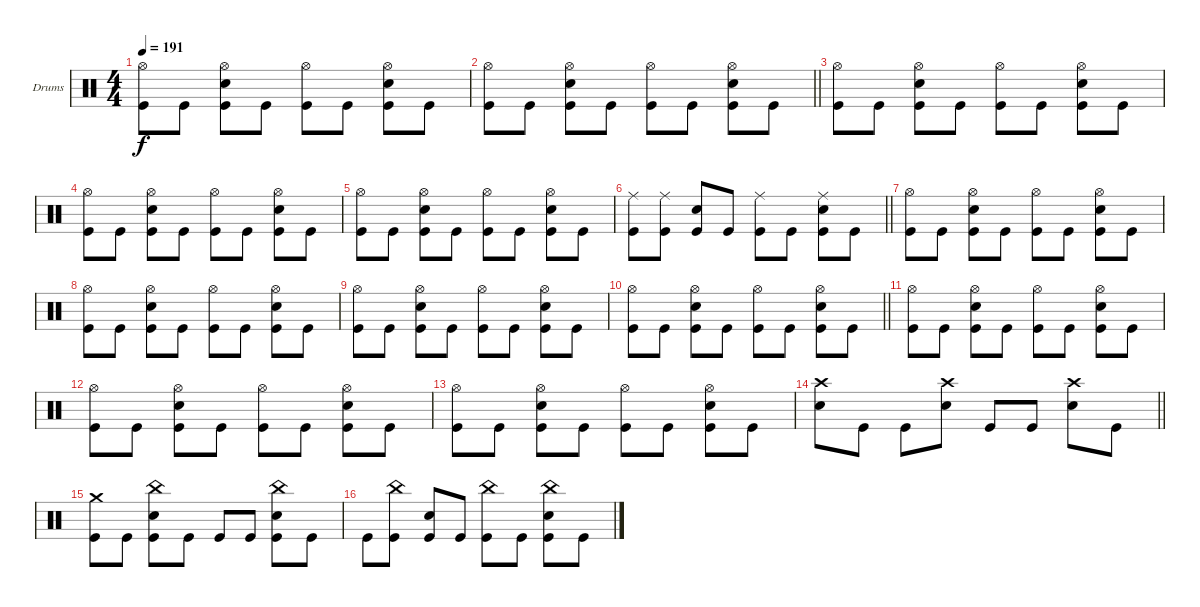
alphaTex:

\bracketExtendMode groupsimilarinstruments
\firstSystemTrackNameOrientation horizontal
\otherSystemsTrackNameOrientation horizontal
\track ("Drumkit" "Drums") {instrument percussion}
\staff {score}
\articulation defaults
\ts (4 4)
\tempo 191
\clef neutral
\ks c
("Hi-Hat (open)" "Kick (hit)").8{dy f} "Kick (hit)".8 ("Hi-Hat (open)" "Snare (hit) 2" "Kick (hit)").8 "Kick (hit)".8 ("Hi-Hat (open)" "Kick (hit)").8 "Kick (hit)".8 ("Hi-Hat (open)" "Snare (hit) 2" "Kick (hit)").8 "Kick (hit)".8 |
\barLineRight lightlight
("Hi-Hat (open)" "Kick (hit)").8 "Kick (hit)".8 ("Hi-Hat (open)" "Snare (hit) 2" "Kick (hit)").8 "Kick (hit)".8 ("Hi-Hat (open)" "Kick (hit)").8 "Kick (hit)".8 ("Hi-Hat (open)" "Snare (hit) 2" "Kick (hit)").8 "Kick (hit)".8 |
("Hi-Hat (open)" "Kick (hit)").8 "Kick (hit)".8 ("Hi-Hat (open)" "Snare (hit) 2" "Kick (hit)").8 "Kick (hit)".8 ("Hi-Hat (open)" "Kick (hit)").8 "Kick (hit)".8 ("Hi-Hat (open)" "Snare (hit) 2" "Kick (hit)").8 "Kick (hit)".8 |
("Hi-Hat (open)" "Kick (hit)").8 "Kick (hit)".8 ("Hi-Hat (open)" "Snare (hit) 2" "Kick (hit)").8 "Kick (hit)".8 ("Hi-Hat (open)" "Kick (hit)").8 "Kick (hit)".8 ("Hi-Hat (open)" "Snare (hit) 2" "Kick (hit)").8 "Kick (hit)".8 |
("Hi-Hat (open)" "Kick (hit)").8 "Kick (hit)".8 ("Hi-Hat (open)" "Snare (hit) 2" "Kick (hit)").8 "Kick (hit)".8 ("Hi-Hat (open)" "Kick (hit)").8 "Kick (hit)".8 ("Hi-Hat (open)" "Snare (hit) 2" "Kick (hit)").8 "Kick (hit)".8 |
\barLineRight lightlight
("Ride (middle)" "Kick (hit)").8 ("Ride (middle)" "Kick (hit)").8 ("Snare (hit) 2" "Kick (hit)").8 "Kick (hit)".8 ("Ride (middle)" "Kick (hit)").8 "Kick (hit)".8 ("Ride (middle)" "Snare (hit) 2" "Kick (hit)").8 "Kick (hit)".8 |
\section ("" "")
("Hi-Hat (open)" "Kick (hit)").8 "Kick (hit)".8 ("Hi-Hat (open)" "Snare (hit) 2" "Kick (hit)").8 "Kick (hit)".8 ("Hi-Hat (open)" "Kick (hit)").8 "Kick (hit)".8 ("Hi-Hat (open)" "Snare (hit) 2" "Kick (hit)").8 "Kick (hit)".8 |
("Hi-Hat (open)" "Kick (hit)").8 "Kick (hit)".8 ("Hi-Hat (open)" "Snare (hit) 2" "Kick (hit)").8 "Kick (hit)".8 ("Hi-Hat (open)" "Kick (hit)").8 "Kick (hit)".8 ("Hi-Hat (open)" "Snare (hit) 2" "Kick (hit)").8 "Kick (hit)".8 |
("Hi-Hat (open)" "Kick (hit)").8 "Kick (hit)".8 ("Hi-Hat (open)" "Snare (hit) 2" "Kick (hit)").8 "Kick (hit)".8 ("Hi-Hat (open)" "Kick (hit)").8 "Kick (hit)".8 ("Hi-Hat (open)" "Snare (hit) 2" "Kick (hit)").8 "Kick (hit)".8 |
\barLineRight lightlight
("Hi-Hat (open)" "Kick (hit)").8 "Kick (hit)".8 ("Hi-Hat (open)" "Snare (hit) 2" "Kick (hit)").8 "Kick (hit)".8 ("Hi-Hat (open)" "Kick (hit)").8 "Kick (hit)".8 ("Hi-Hat (open)" "Snare (hit) 2" "Kick (hit)").8 "Kick (hit)".8 |
("Hi-Hat (open)" "Kick (hit)").8 "Kick (hit)".8 ("Hi-Hat (open)" "Snare (hit) 2" "Kick (hit)").8 "Kick (hit)".8 ("Hi-Hat (open)" "Kick (hit)").8 "Kick (hit)".8 ("Hi-Hat (open)" "Snare (hit) 2" "Kick (hit)").8 "Kick (hit)".8 |
("Hi-Hat (open)" "Kick (hit)").8 "Kick (hit)".8 ("Hi-Hat (open)" "Snare (hit) 2" "Kick (hit)").8 "Kick (hit)".8 ("Hi-Hat (open)" "Kick (hit)").8 "Kick (hit)".8 ("Hi-Hat (open)" "Snare (hit) 2" "Kick (hit)").8 "Kick (hit)".8 |
("Hi-Hat (open)" "Kick (hit)").8 "Kick (hit)".8 ("Hi-Hat (open)" "Snare (hit) 2" "Kick (hit)").8 "Kick (hit)".8 ("Hi-Hat (open)" "Kick (hit)").8 "Kick (hit)".8 ("Hi-Hat (open)" "Snare (hit) 2" "Kick (hit)").8 "Kick (hit)".8 |
\barLineRight lightlight
("Crash high (hit)" "Snare (hit) 2").8 "Kick (hit)".8 "Kick (hit)".8 ("Crash high (hit)" "Snare (hit) 2").8 "Kick (hit)".8 "Kick (hit)".8 ("Crash high (hit)" "Snare (hit) 2").8 "Kick (hit)".8 |
\section ("" "")
("Crash medium (hit)" "Kick (hit)").8 "Kick (hit)".8 ("China (hit)" "Snare (hit) 2" "Kick (hit)").8 "Kick (hit)".8 "Kick (hit)".8 "Kick (hit)".8 ("China (hit)" "Snare (hit) 2" "Kick (hit)").8 "Kick (hit)".8 |
"Kick (hit)".8 ("China (hit)" "Kick (hit)").8 ("Snare (hit) 2" "Kick (hit)").8 "Kick (hit)".8 ("China (hit)" "Kick (hit)").8 "Kick (hit)".8 ("China (hit)" "Snare (hit) 2" "Kick (hit)").8 "Kick (hit)".8
